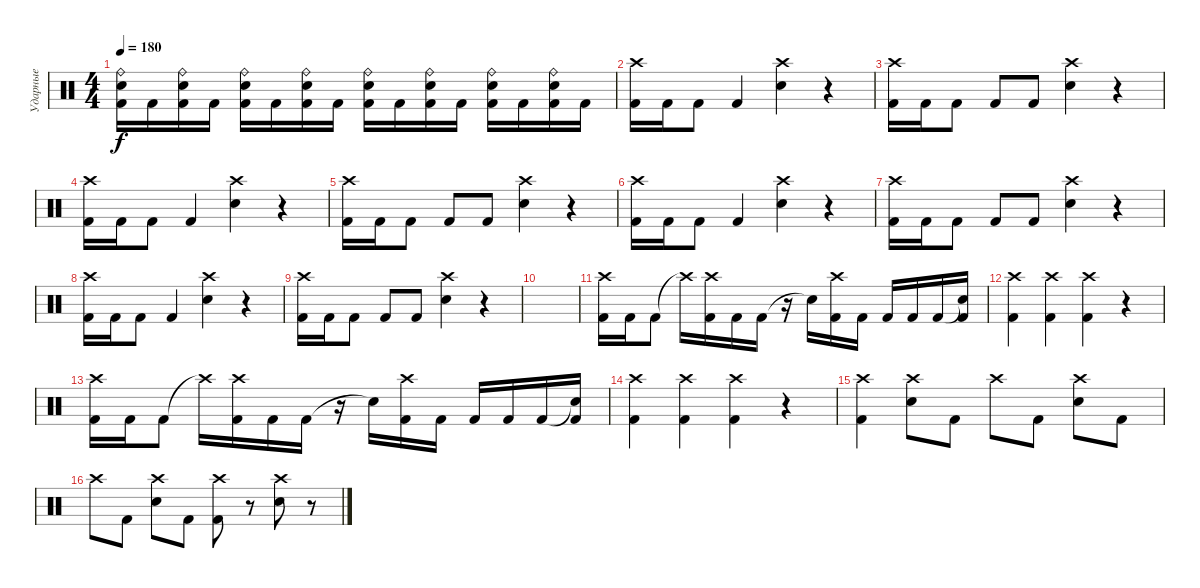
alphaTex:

\track ("Ударные" "Ударные") {instrument percussion}
\staff {score}
\articulation defaults
\ts (4 4)
\tempo 180
\clef neutral
\ks c
("Ride (bell)" "Electric Snare (hit)" "Kick (hit) 2").16{dy f} "Kick (hit) 2".16 ("Ride (bell)" "Electric Snare (hit)" "Kick (hit) 2").16 "Kick (hit) 2".16 ("Ride (bell)" "Electric Snare (hit)" "Kick (hit) 2").16 "Kick (hit) 2".16 ("Ride (bell)" "Electric Snare (hit)" "Kick (hit) 2").16 "Kick (hit) 2".16 ("Ride (bell)" "Electric Snare (hit)" "Kick (hit) 2").16 "Kick (hit) 2".16 ("Ride (bell)" "Electric Snare (hit)" "Kick (hit) 2").16 "Kick (hit) 2".16 ("Ride (bell)" "Electric Snare (hit)" "Kick (hit) 2").16 "Kick (hit) 2".16 ("Ride (bell)" "Electric Snare (hit)" "Kick (hit) 2").16 "Kick (hit) 2".16 |
("Crash high (hit)" "Kick (hit) 2").16 "Kick (hit) 2".16 "Kick (hit) 2".8 "Kick (hit) 2".4 ("Crash high (hit)" "Electric Snare (hit)").4 r.4 |
("Crash high (hit)" "Kick (hit) 2").16 "Kick (hit) 2".16 "Kick (hit) 2".8 "Kick (hit) 2".8 "Kick (hit) 2".8 ("Crash high (hit)" "Electric Snare (hit)").4 r.4 |
("Crash high (hit)" "Kick (hit) 2").16 "Kick (hit) 2".16 "Kick (hit) 2".8 "Kick (hit) 2".4 ("Crash high (hit)" "Electric Snare (hit)").4 r.4 |
("Crash high (hit)" "Kick (hit) 2").16 "Kick (hit) 2".16 "Kick (hit) 2".8 "Kick (hit) 2".8 "Kick (hit) 2".8 ("Crash high (hit)" "Electric Snare (hit)").4 r.4 |
("Crash high (hit)" "Kick (hit) 2").16 "Kick (hit) 2".16 "Kick (hit) 2".8 "Kick (hit) 2".4 ("Crash high (hit)" "Electric Snare (hit)").4 r.4 |
("Crash high (hit)" "Kick (hit) 2").16 "Kick (hit) 2".16 "Kick (hit) 2".8 "Kick (hit) 2".8 "Kick (hit) 2".8 ("Crash high (hit)" "Electric Snare (hit)").4 r.4 |
("Crash high (hit)" "Kick (hit) 2").16 "Kick (hit) 2".16 "Kick (hit) 2".8 "Kick (hit) 2".4 ("Crash high (hit)" "Electric Snare (hit)").4 r.4 |
("Crash high (hit)" "Kick (hit) 2").16 "Kick (hit) 2".16 "Kick (hit) 2".8 "Kick (hit) 2".8 "Kick (hit) 2".8 ("Crash high (hit)" "Electric Snare (hit)").4 r.4 |
|
("Crash high (hit)" "Kick (hit) 2").16 "Kick (hit) 2".16 "Kick (hit) 2".8 "Crash high (hit)"{t}.16 ("Crash high (hit)" "Kick (hit) 2").16 "Kick (hit) 2".16 "Kick (hit) 2".16 r.16 "Snare (hit)"{t}.16 ("Crash high (hit)" "Kick (hit) 2").16 "Kick (hit) 2".16 "Kick (hit) 2".16 "Kick (hit) 2".16 "Kick (hit) 2".16 ("Snare (hit)"{t} "Kick (hit) 2").16 |
("Crash high (hit)" "Kick (hit) 2").4 ("Crash high (hit)" "Kick (hit) 2").4 ("Crash high (hit)" "Kick (hit) 2").4 r.4 |
("Crash high (hit)" "Kick (hit) 2").16 "Kick (hit) 2".16 "Kick (hit) 2".8 "Crash high (hit)"{t}.16 ("Crash high (hit)" "Kick (hit) 2").16 "Kick (hit) 2".16 "Kick (hit) 2".16 r.16 "Snare (hit)"{t}.16 ("Crash high (hit)" "Kick (hit) 2").16 "Kick (hit) 2".16 "Kick (hit) 2".16 "Kick (hit) 2".16 "Kick (hit) 2".16 ("Snare (hit)"{t} "Kick (hit) 2").16 |
("Crash high (hit)" "Kick (hit) 2").4 ("Crash high (hit)" "Kick (hit) 2").4 ("Crash high (hit)" "Kick (hit) 2").4 r.4 |
("Crash high (hit)" "Kick (hit) 2").4 ("Crash high (hit)" "Electric Snare (hit)").8 "Kick (hit) 2".8 "Crash high (hit)".8 "Kick (hit) 2".8 ("Crash high (hit)" "Electric Snare (hit)").8 "Kick (hit) 2".8 |
"Crash high (hit)".8 "Kick (hit) 2".8 ("Crash high (hit)" "Electric Snare (hit)").8 "Kick (hit) 2".8 ("Crash high (hit)" "Kick (hit) 2").8 r.8 ("Crash high (hit)" "Electric Snare (hit)").8 r.8
